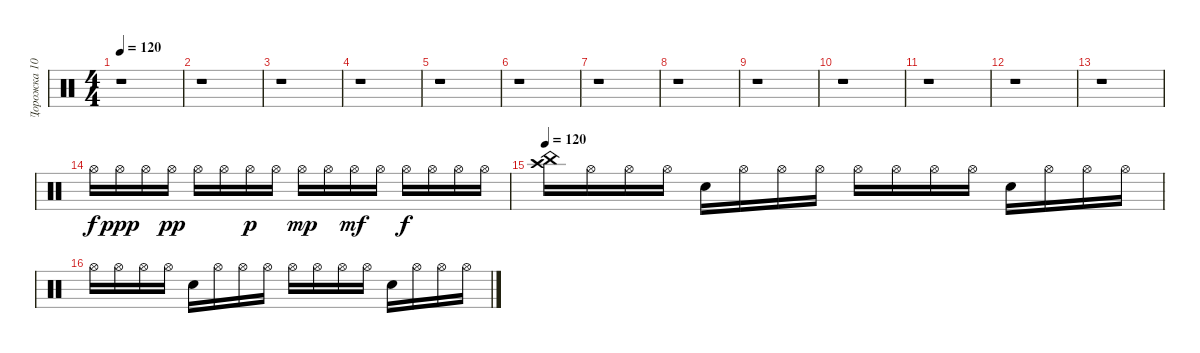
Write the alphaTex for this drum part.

\track ("Дорожка 10" "Дорожка 10") {instrument percussion}
\staff {score}
\articulation defaults
\ts (4 4)
\tempo 120
\clef neutral
\ks c
r.1{dy fff} |
r.1 |
r.1 |
r.1 |
r.1 |
r.1 |
r.1 |
r.1 |
r.1 |
r.1 |
r.1 |
r.1 |
r.1 |
"Hi-Hat (open)".16{dy f} "Hi-Hat (open)".16{dy ppp} "Hi-Hat (open)".16 "Hi-Hat (open)".16{dy pp} "Hi-Hat (open)".16 "Hi-Hat (open)".16 "Hi-Hat (open)".16{dy p} "Hi-Hat (open)".16 "Hi-Hat (open)".16{dy mp} "Hi-Hat (open)".16 "Hi-Hat (open)".16{dy mf} "Hi-Hat (open)".16 "Hi-Hat (open)".16{dy f} "Hi-Hat (open)".16 "Hi-Hat (open)".16 "Hi-Hat (open)".16 |
\tempo 120
("China (hit)" "Crash high (hit)").16 "Hi-Hat (open)".16 "Hi-Hat (open)".16 "Hi-Hat (open)".16 "Electric Snare (hit)".16 "Hi-Hat (open)".16 "Hi-Hat (open)".16 "Hi-Hat (open)".16 "Hi-Hat (open)".16 "Hi-Hat (open)".16 "Hi-Hat (open)".16 "Hi-Hat (open)".16 "Electric Snare (hit)".16 "Hi-Hat (open)".16 "Hi-Hat (open)".16 "Hi-Hat (open)".16 |
"Hi-Hat (open)".16 "Hi-Hat (open)".16 "Hi-Hat (open)".16 "Hi-Hat (open)".16 "Electric Snare (hit)".16 "Hi-Hat (open)".16 "Hi-Hat (open)".16 "Hi-Hat (open)".16 "Hi-Hat (open)".16 "Hi-Hat (open)".16 "Hi-Hat (open)".16 "Hi-Hat (open)".16 "Electric Snare (hit)".16 "Hi-Hat (open)".16 "Hi-Hat (open)".16 "Hi-Hat (open)".16
